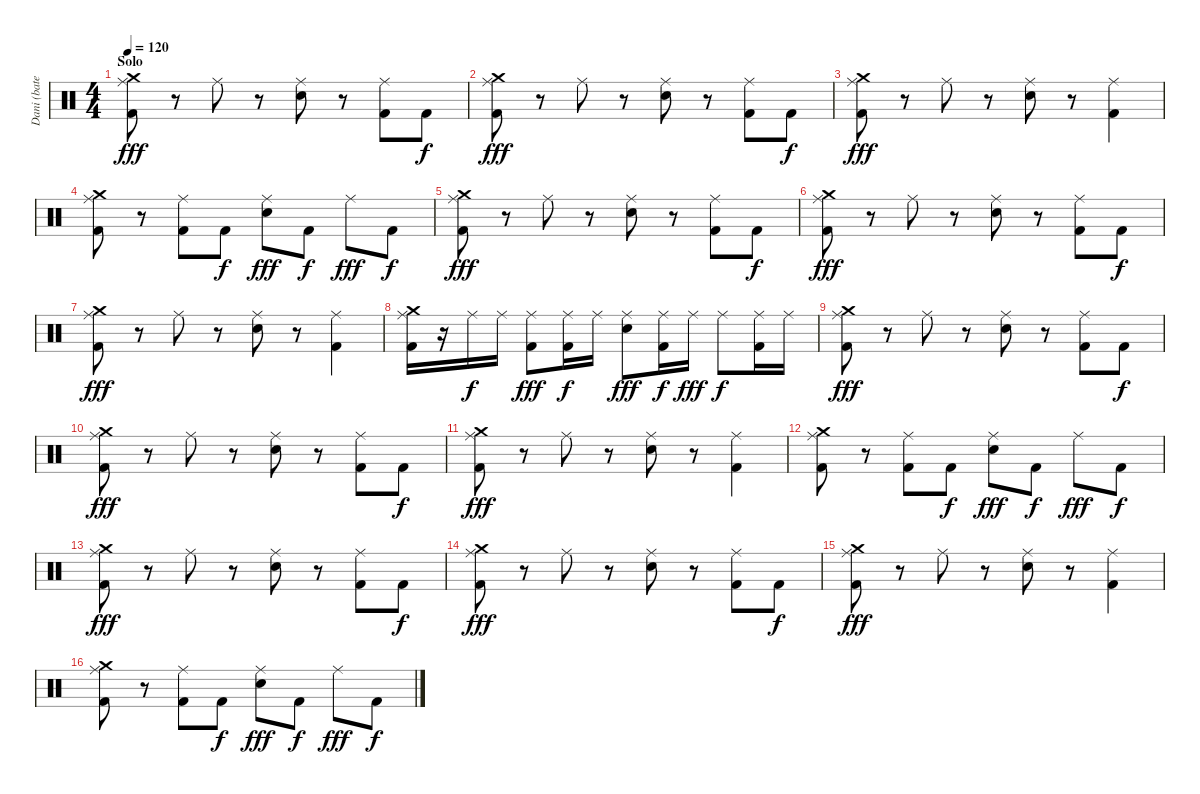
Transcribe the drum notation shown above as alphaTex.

\track ("Dani (batería)" "Dani (bate") {instrument percussion}
\staff {score}
\articulation defaults
\ts (4 4)
\section ("" "Solo")
\tempo 120
\clef neutral
\ks c
("Crash medium (hit)" "Ride (middle)" "Kick (hit) 2").8{dy fff} r.8 "Ride (middle)".8 r.8 ("Ride (middle)" "Electric Snare (hit)").8 r.8 ("Ride (middle)" "Kick (hit) 2").8 "Kick (hit) 2".8{dy f} |
("Crash medium (hit)" "Ride (middle)" "Kick (hit) 2").8{dy fff} r.8 "Ride (middle)".8 r.8 ("Ride (middle)" "Electric Snare (hit)").8 r.8 ("Ride (middle)" "Kick (hit) 2").8 "Kick (hit) 2".8{dy f} |
("Crash medium (hit)" "Ride (middle)" "Kick (hit) 2").8{dy fff} r.8 "Ride (middle)".8 r.8 ("Ride (middle)" "Electric Snare (hit)").8 r.8 ("Ride (middle)" "Kick (hit) 2").4 |
("Crash medium (hit)" "Ride (middle)" "Kick (hit) 2").8 r.8 ("Ride (middle)" "Kick (hit) 2").8 "Kick (hit) 2".8{dy f} ("Ride (middle)" "Electric Snare (hit)").8{dy fff} "Kick (hit) 2".8{dy f} "Ride (middle)".8{dy fff} "Kick (hit) 2".8{dy f} |
("Crash medium (hit)" "Ride (middle)" "Kick (hit) 2").8{dy fff} r.8 "Ride (middle)".8 r.8 ("Ride (middle)" "Electric Snare (hit)").8 r.8 ("Ride (middle)" "Kick (hit) 2").8 "Kick (hit) 2".8{dy f} |
("Crash medium (hit)" "Ride (middle)" "Kick (hit) 2").8{dy fff} r.8 "Ride (middle)".8 r.8 ("Ride (middle)" "Electric Snare (hit)").8 r.8 ("Ride (middle)" "Kick (hit) 2").8 "Kick (hit) 2".8{dy f} |
("Crash medium (hit)" "Ride (middle)" "Kick (hit) 2").8{dy fff} r.8 "Ride (middle)".8 r.8 ("Ride (middle)" "Electric Snare (hit)").8 r.8 ("Ride (middle)" "Kick (hit) 2").4 |
("Crash medium (hit)" "Ride (middle)" "Kick (hit) 2").16 r.16 "Ride (middle)".16{dy f} "Ride (middle)".16 ("Ride (middle)" "Kick (hit) 2").8{dy fff} ("Ride (middle)" "Kick (hit) 2").16{dy f} "Ride (middle)".16 ("Ride (middle)" "Electric Snare (hit)").8{dy fff} ("Ride (middle)" "Kick (hit) 2").16{dy f} "Ride (middle)".16{dy fff} "Ride (middle)".8{dy f} ("Ride (middle)" "Kick (hit) 2").16 "Ride (middle)".16 |
("Crash medium (hit)" "Ride (middle)" "Kick (hit) 2").8{dy fff} r.8 "Ride (middle)".8 r.8 ("Ride (middle)" "Electric Snare (hit)").8 r.8 ("Ride (middle)" "Kick (hit) 2").8 "Kick (hit) 2".8{dy f} |
("Crash medium (hit)" "Ride (middle)" "Kick (hit) 2").8{dy fff} r.8 "Ride (middle)".8 r.8 ("Ride (middle)" "Electric Snare (hit)").8 r.8 ("Ride (middle)" "Kick (hit) 2").8 "Kick (hit) 2".8{dy f} |
("Crash medium (hit)" "Ride (middle)" "Kick (hit) 2").8{dy fff} r.8 "Ride (middle)".8 r.8 ("Ride (middle)" "Electric Snare (hit)").8 r.8 ("Ride (middle)" "Kick (hit) 2").4 |
("Crash medium (hit)" "Ride (middle)" "Kick (hit) 2").8 r.8 ("Ride (middle)" "Kick (hit) 2").8 "Kick (hit) 2".8{dy f} ("Ride (middle)" "Electric Snare (hit)").8{dy fff} "Kick (hit) 2".8{dy f} "Ride (middle)".8{dy fff} "Kick (hit) 2".8{dy f} |
("Crash medium (hit)" "Ride (middle)" "Kick (hit) 2").8{dy fff} r.8 "Ride (middle)".8 r.8 ("Ride (middle)" "Electric Snare (hit)").8 r.8 ("Ride (middle)" "Kick (hit) 2").8 "Kick (hit) 2".8{dy f} |
("Crash medium (hit)" "Ride (middle)" "Kick (hit) 2").8{dy fff} r.8 "Ride (middle)".8 r.8 ("Ride (middle)" "Electric Snare (hit)").8 r.8 ("Ride (middle)" "Kick (hit) 2").8 "Kick (hit) 2".8{dy f} |
("Crash medium (hit)" "Ride (middle)" "Kick (hit) 2").8{dy fff} r.8 "Ride (middle)".8 r.8 ("Ride (middle)" "Electric Snare (hit)").8 r.8 ("Ride (middle)" "Kick (hit) 2").4 |
("Crash medium (hit)" "Ride (middle)" "Kick (hit) 2").8 r.8 ("Ride (middle)" "Kick (hit) 2").8 "Kick (hit) 2".8{dy f} ("Ride (middle)" "Electric Snare (hit)").8{dy fff} "Kick (hit) 2".8{dy f} "Ride (middle)".8{dy fff} "Kick (hit) 2".8{dy f}
